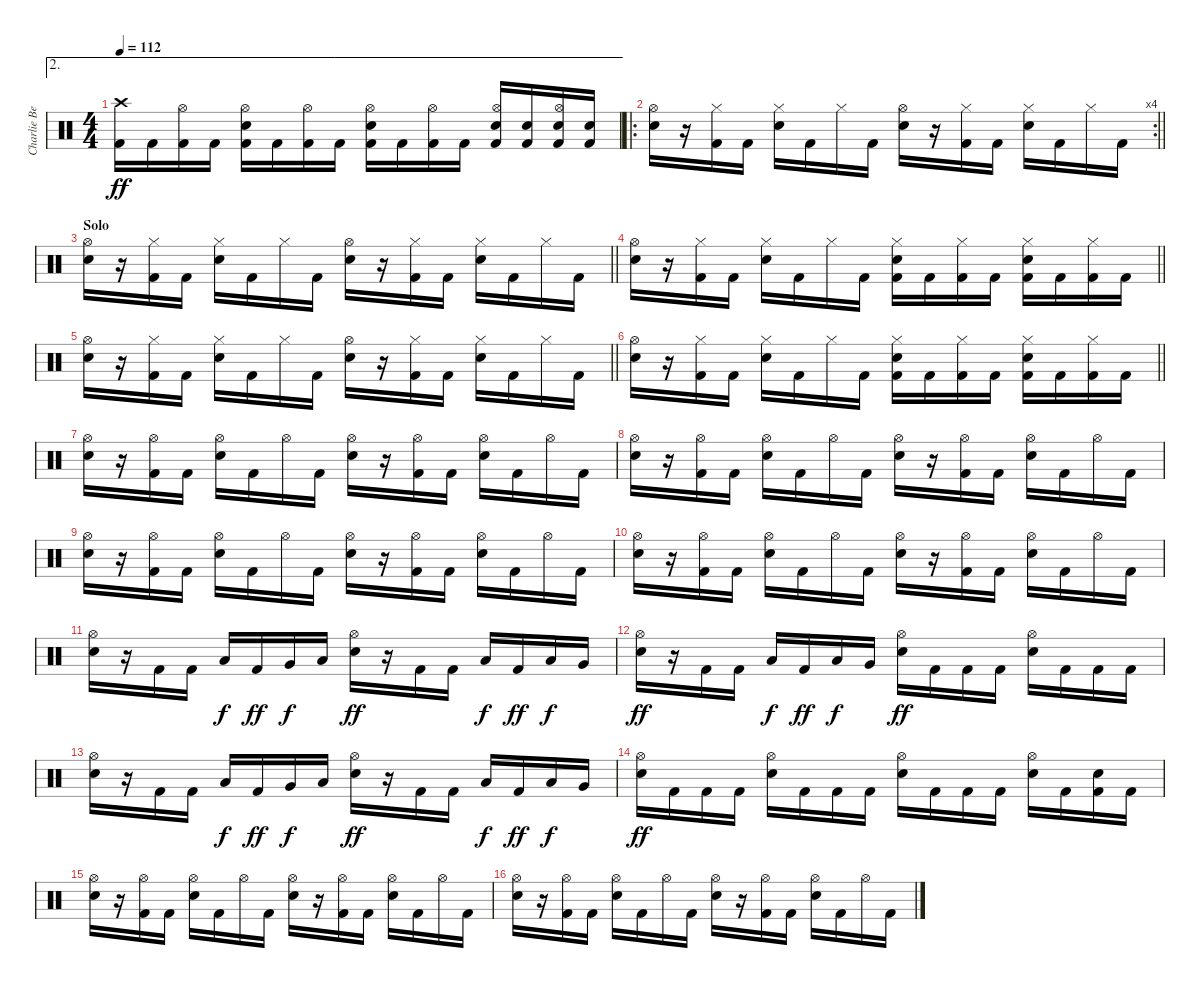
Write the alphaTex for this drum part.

\track ("Charlie Benante" "Charlie Be") {instrument percussion}
\staff {score}
\articulation defaults
\ae 2
\ts (4 4)
\tempo 112
\clef neutral
\ks c
("Crash high (hit)" "Kick (hit) 2").16{dy ff} "Kick (hit) 2".16 ("Hi-Hat (open)" "Kick (hit) 2").16 "Kick (hit) 2".16 ("Hi-Hat (open)" "Snare (hit) 2" "Kick (hit) 2").16 "Kick (hit) 2".16 ("Hi-Hat (open)" "Kick (hit) 2").16 "Kick (hit) 2".16 ("Hi-Hat (open)" "Snare (hit) 2" "Kick (hit) 2").16 "Kick (hit) 2".16 ("Hi-Hat (open)" "Kick (hit) 2").16 "Kick (hit) 2".16 ("Hi-Hat (open)" "Snare (hit) 2" "Kick (hit) 2").16 ("Snare (hit) 2" "Kick (hit) 2").16 ("Hi-Hat (open)" "Snare (hit) 2" "Kick (hit) 2").16 ("Snare (hit) 2" "Kick (hit) 2").16 |
\ro
\rc 4
\barLineRight lightlight
("Hi-Hat (open)" "Snare (hit) 2").16 r.16 ("Hi-Hat (closed)" "Kick (hit) 2").16 "Kick (hit) 2".16 ("Hi-Hat (closed)" "Snare (hit) 2").16 "Kick (hit) 2".16 "Hi-Hat (closed)".16 "Kick (hit) 2".16 ("Hi-Hat (open)" "Snare (hit) 2").16 r.16 ("Hi-Hat (closed)" "Kick (hit) 2").16 "Kick (hit) 2".16 ("Hi-Hat (closed)" "Snare (hit) 2").16 "Kick (hit) 2".16 "Hi-Hat (closed)".16 "Kick (hit) 2".16 |
\section ("" "Solo")
\barLineRight lightlight
("Hi-Hat (open)" "Snare (hit) 2").16 r.16 ("Hi-Hat (closed)" "Kick (hit) 2").16 "Kick (hit) 2".16 ("Hi-Hat (closed)" "Snare (hit) 2").16 "Kick (hit) 2".16 "Hi-Hat (closed)".16 "Kick (hit) 2".16 ("Hi-Hat (open)" "Snare (hit) 2").16 r.16 ("Hi-Hat (closed)" "Kick (hit) 2").16 "Kick (hit) 2".16 ("Hi-Hat (closed)" "Snare (hit) 2").16 "Kick (hit) 2".16 "Hi-Hat (closed)".16 "Kick (hit) 2".16 |
\barLineRight lightlight
("Hi-Hat (open)" "Snare (hit) 2").16 r.16 ("Hi-Hat (closed)" "Kick (hit) 2").16 "Kick (hit) 2".16 ("Hi-Hat (closed)" "Snare (hit) 2").16 "Kick (hit) 2".16 "Hi-Hat (closed)".16 "Kick (hit) 2".16 ("Hi-Hat (closed)" "Snare (hit) 2" "Kick (hit) 2").16 "Kick (hit) 2".16 ("Hi-Hat (closed)" "Kick (hit) 2").16 "Kick (hit) 2".16 ("Hi-Hat (closed)" "Snare (hit) 2" "Kick (hit) 2").16 "Kick (hit) 2".16 ("Hi-Hat (closed)" "Kick (hit) 2").16 "Kick (hit) 2".16 |
\barLineRight lightlight
("Hi-Hat (open)" "Snare (hit) 2").16 r.16 ("Hi-Hat (closed)" "Kick (hit) 2").16 "Kick (hit) 2".16 ("Hi-Hat (closed)" "Snare (hit) 2").16 "Kick (hit) 2".16 "Hi-Hat (closed)".16 "Kick (hit) 2".16 ("Hi-Hat (open)" "Snare (hit) 2").16 r.16 ("Hi-Hat (closed)" "Kick (hit) 2").16 "Kick (hit) 2".16 ("Hi-Hat (closed)" "Snare (hit) 2").16 "Kick (hit) 2".16 "Hi-Hat (closed)".16 "Kick (hit) 2".16 |
\barLineRight lightlight
("Hi-Hat (open)" "Snare (hit) 2").16 r.16 ("Hi-Hat (closed)" "Kick (hit) 2").16 "Kick (hit) 2".16 ("Hi-Hat (closed)" "Snare (hit) 2").16 "Kick (hit) 2".16 "Hi-Hat (closed)".16 "Kick (hit) 2".16 ("Hi-Hat (closed)" "Snare (hit) 2" "Kick (hit) 2").16 "Kick (hit) 2".16 ("Hi-Hat (closed)" "Kick (hit) 2").16 "Kick (hit) 2".16 ("Hi-Hat (closed)" "Snare (hit) 2" "Kick (hit) 2").16 "Kick (hit) 2".16 ("Hi-Hat (closed)" "Kick (hit) 2").16 "Kick (hit) 2".16 |
("Hi-Hat (open)" "Snare (hit) 2").16 r.16 ("Hi-Hat (open)" "Kick (hit) 2").16 "Kick (hit) 2".16 ("Hi-Hat (open)" "Snare (hit) 2").16 "Kick (hit) 2".16 "Hi-Hat (open)".16 "Kick (hit) 2".16 ("Hi-Hat (open)" "Snare (hit) 2").16 r.16 ("Hi-Hat (open)" "Kick (hit) 2").16 "Kick (hit) 2".16 ("Hi-Hat (open)" "Snare (hit) 2").16 "Kick (hit) 2".16 "Hi-Hat (open)".16 "Kick (hit) 2".16 |
("Hi-Hat (open)" "Snare (hit) 2").16 r.16 ("Hi-Hat (open)" "Kick (hit) 2").16 "Kick (hit) 2".16 ("Hi-Hat (open)" "Snare (hit) 2").16 "Kick (hit) 2".16 "Hi-Hat (open)".16 "Kick (hit) 2".16 ("Hi-Hat (open)" "Snare (hit) 2").16 r.16 ("Hi-Hat (open)" "Kick (hit) 2").16 "Kick (hit) 2".16 ("Hi-Hat (open)" "Snare (hit) 2").16 "Kick (hit) 2".16 "Hi-Hat (open)".16 "Kick (hit) 2".16 |
("Hi-Hat (open)" "Snare (hit) 2").16 r.16 ("Hi-Hat (open)" "Kick (hit) 2").16 "Kick (hit) 2".16 ("Hi-Hat (open)" "Snare (hit) 2").16 "Kick (hit) 2".16 "Hi-Hat (open)".16 "Kick (hit) 2".16 ("Hi-Hat (open)" "Snare (hit) 2").16 r.16 ("Hi-Hat (open)" "Kick (hit) 2").16 "Kick (hit) 2".16 ("Hi-Hat (open)" "Snare (hit) 2").16 "Kick (hit) 2".16 "Hi-Hat (open)".16 "Kick (hit) 2".16 |
("Hi-Hat (open)" "Snare (hit) 2").16 r.16 ("Hi-Hat (open)" "Kick (hit) 2").16 "Kick (hit) 2".16 ("Hi-Hat (open)" "Snare (hit) 2").16 "Kick (hit) 2".16 "Hi-Hat (open)".16 "Kick (hit) 2".16 ("Hi-Hat (open)" "Snare (hit) 2").16 r.16 ("Hi-Hat (open)" "Kick (hit) 2").16 "Kick (hit) 2".16 ("Hi-Hat (open)" "Snare (hit) 2").16 "Kick (hit) 2".16 "Hi-Hat (open)".16 "Kick (hit) 2".16 |
("Hi-Hat (open)" "Snare (hit) 2").16 r.16 "Kick (hit) 2".16 "Kick (hit) 2".16 "Low Floor Tom (hit)".16{dy f} "Kick (hit) 2".16{dy ff} "Very Low Tom (hit)".16{dy f} "Low Floor Tom (hit)".16 ("Hi-Hat (open)" "Snare (hit) 2").16{dy ff} r.16 "Kick (hit) 2".16 "Kick (hit) 2".16 "Low Floor Tom (hit)".16{dy f} "Kick (hit) 2".16{dy ff} "Low Floor Tom (hit)".16{dy f} "Very Low Tom (hit)".16 |
("Hi-Hat (open)" "Snare (hit) 2").16{dy ff} r.16 "Kick (hit) 2".16 "Kick (hit) 2".16 "Low Floor Tom (hit)".16{dy f} "Kick (hit) 2".16{dy ff} "Low Tom (hit)".16{dy f} "Very Low Tom (hit)".16 ("Hi-Hat (open)" "Snare (hit) 2").16{dy ff} "Kick (hit) 2".16 "Kick (hit) 2".16 "Kick (hit) 2".16 ("Hi-Hat (open)" "Snare (hit) 2").16 "Kick (hit) 2".16 "Kick (hit) 2".16 "Kick (hit) 2".16 |
("Hi-Hat (open)" "Snare (hit) 2").16 r.16 "Kick (hit) 2".16 "Kick (hit) 2".16 "Low Floor Tom (hit)".16{dy f} "Kick (hit) 2".16{dy ff} "Very Low Tom (hit)".16{dy f} "Low Floor Tom (hit)".16 ("Hi-Hat (open)" "Snare (hit) 2").16{dy ff} r.16 "Kick (hit) 2".16 "Kick (hit) 2".16 "Low Floor Tom (hit)".16{dy f} "Kick (hit) 2".16{dy ff} "Low Floor Tom (hit)".16{dy f} "Very Low Tom (hit)".16 |
("Hi-Hat (open)" "Snare (hit) 2").16{dy ff} "Kick (hit) 2".16 "Kick (hit) 2".16 "Kick (hit) 2".16 ("Hi-Hat (open)" "Snare (hit) 2").16 "Kick (hit) 2".16 "Kick (hit) 2".16 "Kick (hit) 2".16 ("Hi-Hat (open)" "Snare (hit) 2").16 "Kick (hit) 2".16 "Kick (hit) 2".16 "Kick (hit) 2".16 ("Hi-Hat (open)" "Snare (hit) 2").16 "Kick (hit) 2".16 ("Snare (hit) 2" "Kick (hit) 2").16 "Kick (hit) 2".16 |
("Hi-Hat (open)" "Snare (hit) 2").16 r.16 ("Hi-Hat (open)" "Kick (hit) 2").16 "Kick (hit) 2".16 ("Hi-Hat (open)" "Snare (hit) 2").16 "Kick (hit) 2".16 "Hi-Hat (open)".16 "Kick (hit) 2".16 ("Hi-Hat (open)" "Snare (hit) 2").16 r.16 ("Hi-Hat (open)" "Kick (hit) 2").16 "Kick (hit) 2".16 ("Hi-Hat (open)" "Snare (hit) 2").16 "Kick (hit) 2".16 "Hi-Hat (open)".16 "Kick (hit) 2".16 |
("Hi-Hat (open)" "Snare (hit) 2").16 r.16 ("Hi-Hat (open)" "Kick (hit) 2").16 "Kick (hit) 2".16 ("Hi-Hat (open)" "Snare (hit) 2").16 "Kick (hit) 2".16 "Hi-Hat (open)".16 "Kick (hit) 2".16 ("Hi-Hat (open)" "Snare (hit) 2").16 r.16 ("Hi-Hat (open)" "Kick (hit) 2").16 "Kick (hit) 2".16 ("Hi-Hat (open)" "Snare (hit) 2").16 "Kick (hit) 2".16 "Hi-Hat (open)".16 "Kick (hit) 2".16
